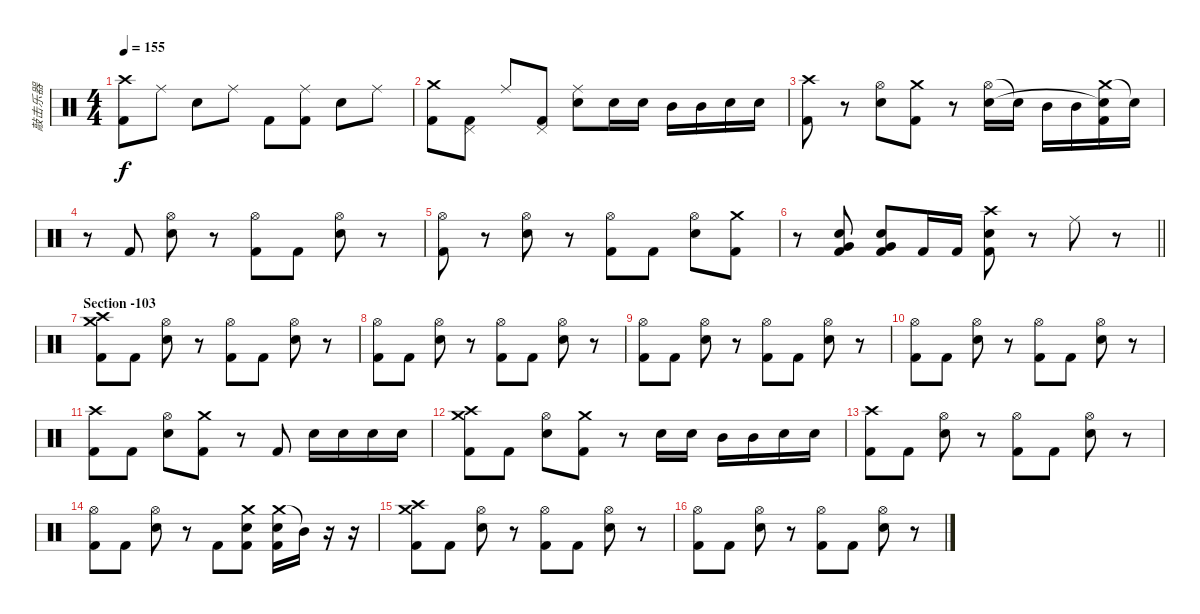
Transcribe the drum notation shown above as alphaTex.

\track ("敲击乐器" "敲击乐器") {instrument percussion}
\staff {score}
\articulation defaults
\ts (4 4)
\tempo 155
\clef neutral
\ks c
("Crash high (hit)" "Kick (hit) 2").8{dy f} "Ride (middle)".8 "Snare (hit) 2".8 "Ride (middle)".8 "Kick (hit) 2".8 ("Ride (middle)" "Kick (hit) 2").8 "Snare (hit) 2".8 "Ride (middle)".8 |
("Crash medium (hit)" "Kick (hit) 2").8 ("Pedal Hi-Hat (hit)" "Kick (hit) 2").8 "Ride (middle)".8 ("Pedal Hi-Hat (hit)" "Kick (hit) 2").8 ("Ride (middle)" "Snare (hit) 2").8 "Snare (hit) 2".16 "Snare (hit) 2".16 "Mid Tom (hit)".16 "Mid Tom (hit)".16 "Snare (hit) 2".16 "Snare (hit) 2".16 |
("Crash high (hit)" "Kick (hit) 2").8 r.8 ("Hi-Hat (open)" "Snare (hit) 2").8 ("Crash medium (hit)" "Kick (hit) 2").8 r.8 ("Hi-Hat (open)" "Snare (hit) 2").16 "Snare (hit) 2"{t}.16 "Mid Tom (hit)".16 "Mid Tom (hit)".16 ("Crash medium (hit)" "Snare (hit) 2"{t} "Kick (hit) 2").16 "Snare (hit) 2"{t}.16 |
r.8 "Kick (hit) 2".8 ("Hi-Hat (open)" "Snare (hit) 2").8 r.8 ("Hi-Hat (open)" "Kick (hit) 2").8 "Kick (hit) 2".8 ("Hi-Hat (open)" "Snare (hit) 2").8 r.8 |
("Hi-Hat (open)" "Kick (hit) 2").8 r.8 ("Hi-Hat (open)" "Snare (hit) 2").8 r.8 ("Hi-Hat (open)" "Kick (hit) 2").8 "Kick (hit) 2".8 ("Hi-Hat (open)" "Snare (hit) 2").8 ("Crash medium (hit)" "Kick (hit) 2").8 |
\barLineRight lightlight
r.8 ("Snare (hit) 2" "Very Low Tom (hit)" "Kick (hit) 2").8 ("Snare (hit) 2" "Very Low Tom (hit)" "Kick (hit) 2").8 "Kick (hit) 2".16 "Kick (hit) 2".16 ("Crash high (hit)" "Snare (hit) 2" "Kick (hit) 2").8 r.8 "Ride (middle)".8 r.8 |
\section ("" "Section -103")
("Crash high (hit)" "Crash medium (hit)" "Kick (hit) 2").8 "Kick (hit) 2".8 ("Hi-Hat (open)" "Snare (hit) 2").8 r.8 ("Hi-Hat (open)" "Kick (hit) 2").8 "Kick (hit) 2".8 ("Hi-Hat (open)" "Snare (hit) 2").8 r.8 |
("Hi-Hat (open)" "Kick (hit) 2").8 "Kick (hit) 2".8 ("Hi-Hat (open)" "Snare (hit) 2").8 r.8 ("Hi-Hat (open)" "Kick (hit) 2").8 "Kick (hit) 2".8 ("Hi-Hat (open)" "Snare (hit) 2").8 r.8 |
("Hi-Hat (open)" "Kick (hit) 2").8 "Kick (hit) 2".8 ("Hi-Hat (open)" "Snare (hit) 2").8 r.8 ("Hi-Hat (open)" "Kick (hit) 2").8 "Kick (hit) 2".8 ("Hi-Hat (open)" "Snare (hit) 2").8 r.8 |
("Hi-Hat (open)" "Kick (hit) 2").8 "Kick (hit) 2".8 ("Hi-Hat (open)" "Snare (hit) 2").8 r.8 ("Hi-Hat (open)" "Kick (hit) 2").8 "Kick (hit) 2".8 ("Hi-Hat (open)" "Snare (hit) 2").8 r.8 |
("Crash high (hit)" "Kick (hit) 2").8 "Kick (hit) 2".8 ("Hi-Hat (open)" "Snare (hit) 2").8 ("Crash medium (hit)" "Kick (hit) 2").8 r.8 "Kick (hit) 2".8 "Snare (hit) 2".16 "Snare (hit) 2".16 "Snare (hit) 2".16 "Snare (hit) 2".16 |
("Crash high (hit)" "Crash medium (hit)" "Kick (hit) 2").8 "Kick (hit) 2".8 ("Hi-Hat (open)" "Snare (hit) 2").8 ("Crash medium (hit)" "Kick (hit) 2").8 r.8 "Snare (hit) 2".16 "Snare (hit) 2".16 "Mid Tom (hit)".16 "Mid Tom (hit)".16 "Snare (hit) 2".16 "Snare (hit) 2".16 |
("Crash high (hit)" "Kick (hit) 2").8 "Kick (hit) 2".8 ("Hi-Hat (open)" "Snare (hit) 2").8 r.8 ("Hi-Hat (open)" "Kick (hit) 2").8 "Kick (hit) 2".8 ("Hi-Hat (open)" "Snare (hit) 2").8 r.8 |
("Hi-Hat (open)" "Kick (hit) 2").8 "Kick (hit) 2".8 ("Hi-Hat (open)" "Snare (hit) 2").8 r.8 "Kick (hit) 2".8 ("Crash medium (hit)" "Snare (hit) 2" "Kick (hit) 2").8 ("Crash medium (hit)" "Snare (hit) 2" "Kick (hit) 2").16 "Mid Tom (hit)"{t}.16 r.16 r.16 |
("Crash high (hit)" "Crash medium (hit)" "Kick (hit) 2").8 "Kick (hit) 2".8 ("Hi-Hat (open)" "Snare (hit) 2").8 r.8 ("Hi-Hat (open)" "Kick (hit) 2").8 "Kick (hit) 2".8 ("Hi-Hat (open)" "Snare (hit) 2").8 r.8 |
("Hi-Hat (open)" "Kick (hit) 2").8 "Kick (hit) 2".8 ("Hi-Hat (open)" "Snare (hit) 2").8 r.8 ("Hi-Hat (open)" "Kick (hit) 2").8 "Kick (hit) 2".8 ("Hi-Hat (open)" "Snare (hit) 2").8 r.8
